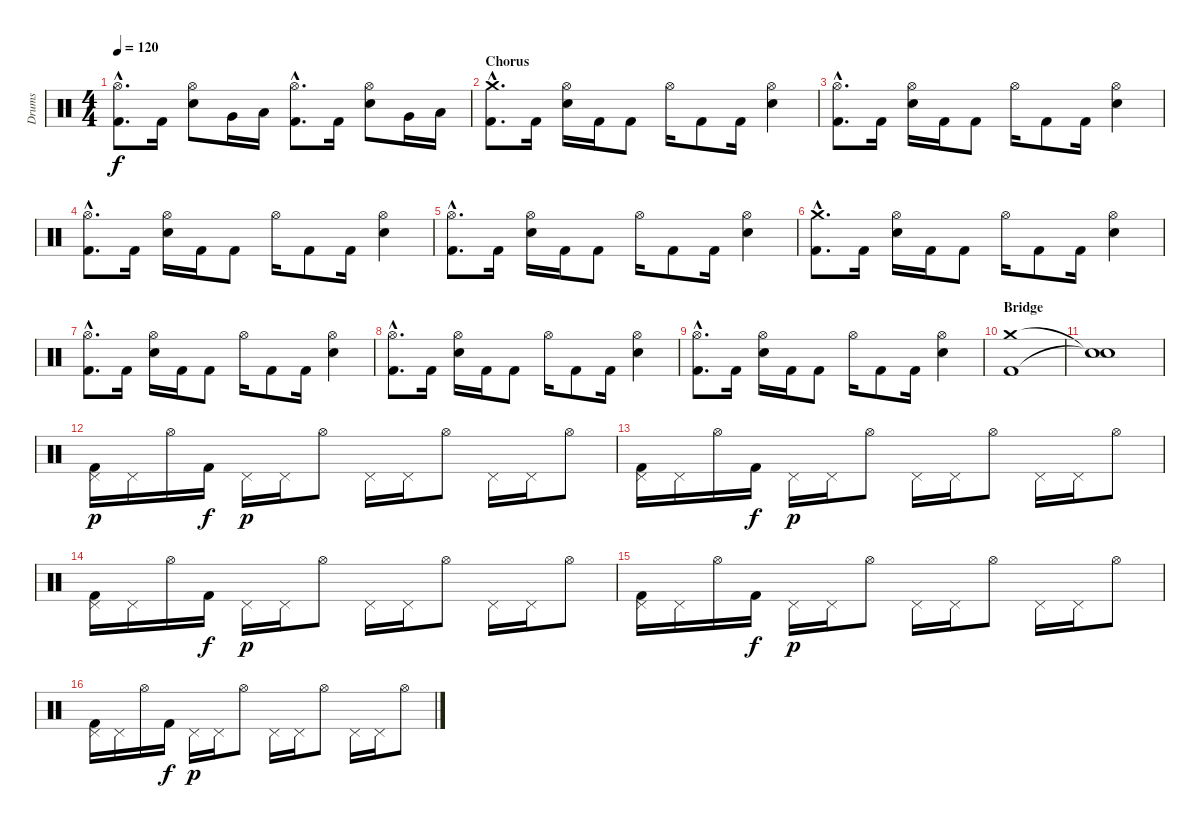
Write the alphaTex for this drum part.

\track ("Drums" "Drums") {instrument percussion}
\staff {score}
\articulation defaults
\ts (4 4)
\tempo 120
\clef neutral
\ks c
("Hi-Hat (open)"{hac} "Kick (hit) 2"{hac}).8{d dy f} "Kick (hit) 2".16 ("Hi-Hat (open)" "Electric Snare (hit)").8 "Very Low Tom (hit)".16 "Low Tom (hit)".16 ("Hi-Hat (open)"{hac} "Kick (hit) 2"{hac}).8{d} "Kick (hit) 2".16 ("Hi-Hat (open)" "Electric Snare (hit)").8 "Very Low Tom (hit)".16 "Low Tom (hit)".16 |
\section ("" "Chorus")
("Crash medium (hit)"{hac} "Kick (hit) 2"{hac}).8{d} "Kick (hit) 2".16 ("Hi-Hat (open)" "Electric Snare (hit)").16 "Kick (hit) 2".16 "Kick (hit) 2".8 "Hi-Hat (open)".16 "Kick (hit) 2".8 "Kick (hit) 2".16 ("Hi-Hat (open)" "Electric Snare (hit)").4 |
("Hi-Hat (open)"{hac} "Kick (hit) 2"{hac}).8{d} "Kick (hit) 2".16 ("Hi-Hat (open)" "Electric Snare (hit)").16 "Kick (hit) 2".16 "Kick (hit) 2".8 "Hi-Hat (open)".16 "Kick (hit) 2".8 "Kick (hit) 2".16 ("Hi-Hat (open)" "Electric Snare (hit)").4 |
("Hi-Hat (open)"{hac} "Kick (hit) 2"{hac}).8{d} "Kick (hit) 2".16 ("Hi-Hat (open)" "Electric Snare (hit)").16 "Kick (hit) 2".16 "Kick (hit) 2".8 "Hi-Hat (open)".16 "Kick (hit) 2".8 "Kick (hit) 2".16 ("Hi-Hat (open)" "Electric Snare (hit)").4 |
("Hi-Hat (open)"{hac} "Kick (hit) 2"{hac}).8{d} "Kick (hit) 2".16 ("Hi-Hat (open)" "Electric Snare (hit)").16 "Kick (hit) 2".16 "Kick (hit) 2".8 "Hi-Hat (open)".16 "Kick (hit) 2".8 "Kick (hit) 2".16 ("Hi-Hat (open)" "Electric Snare (hit)").4 |
("Crash medium (hit)"{hac} "Kick (hit) 2"{hac}).8{d} "Kick (hit) 2".16 ("Hi-Hat (open)" "Electric Snare (hit)").16 "Kick (hit) 2".16 "Kick (hit) 2".8 "Hi-Hat (open)".16 "Kick (hit) 2".8 "Kick (hit) 2".16 ("Hi-Hat (open)" "Electric Snare (hit)").4 |
("Hi-Hat (open)"{hac} "Kick (hit) 2"{hac}).8{d} "Kick (hit) 2".16 ("Hi-Hat (open)" "Electric Snare (hit)").16 "Kick (hit) 2".16 "Kick (hit) 2".8 "Hi-Hat (open)".16 "Kick (hit) 2".8 "Kick (hit) 2".16 ("Hi-Hat (open)" "Electric Snare (hit)").4 |
("Hi-Hat (open)"{hac} "Kick (hit) 2"{hac}).8{d} "Kick (hit) 2".16 ("Hi-Hat (open)" "Electric Snare (hit)").16 "Kick (hit) 2".16 "Kick (hit) 2".8 "Hi-Hat (open)".16 "Kick (hit) 2".8 "Kick (hit) 2".16 ("Hi-Hat (open)" "Electric Snare (hit)").4 |
("Hi-Hat (open)"{hac} "Kick (hit) 2"{hac}).8{d} "Kick (hit) 2".16 ("Hi-Hat (open)" "Electric Snare (hit)").16 "Kick (hit) 2".16 "Kick (hit) 2".8 "Hi-Hat (open)".16 "Kick (hit) 2".8 "Kick (hit) 2".16 ("Hi-Hat (open)" "Electric Snare (hit)").4 |
\section ("" "Bridge")
("Crash medium (hit)" "Kick (hit) 2").1 |
("Snare (hit)"{t} "Snare (hit)"{t}).1 |
("Pedal Hi-Hat (hit)" "Kick (hit) 2").16{dy p} "Pedal Hi-Hat (hit)".16 "Hi-Hat (open)".16 "Kick (hit) 2".16{dy f} "Pedal Hi-Hat (hit)".16{dy p} "Pedal Hi-Hat (hit)".16 "Hi-Hat (open)".8 "Pedal Hi-Hat (hit)".16 "Pedal Hi-Hat (hit)".16 "Hi-Hat (open)".8 "Pedal Hi-Hat (hit)".16 "Pedal Hi-Hat (hit)".16 "Hi-Hat (open)".8 |
("Pedal Hi-Hat (hit)" "Kick (hit) 2").16 "Pedal Hi-Hat (hit)".16 "Hi-Hat (open)".16 "Kick (hit) 2".16{dy f} "Pedal Hi-Hat (hit)".16{dy p} "Pedal Hi-Hat (hit)".16 "Hi-Hat (open)".8 "Pedal Hi-Hat (hit)".16 "Pedal Hi-Hat (hit)".16 "Hi-Hat (open)".8 "Pedal Hi-Hat (hit)".16 "Pedal Hi-Hat (hit)".16 "Hi-Hat (open)".8 |
("Pedal Hi-Hat (hit)" "Kick (hit) 2").16 "Pedal Hi-Hat (hit)".16 "Hi-Hat (open)".16 "Kick (hit) 2".16{dy f} "Pedal Hi-Hat (hit)".16{dy p} "Pedal Hi-Hat (hit)".16 "Hi-Hat (open)".8 "Pedal Hi-Hat (hit)".16 "Pedal Hi-Hat (hit)".16 "Hi-Hat (open)".8 "Pedal Hi-Hat (hit)".16 "Pedal Hi-Hat (hit)".16 "Hi-Hat (open)".8 |
("Pedal Hi-Hat (hit)" "Kick (hit) 2").16 "Pedal Hi-Hat (hit)".16 "Hi-Hat (open)".16 "Kick (hit) 2".16{dy f} "Pedal Hi-Hat (hit)".16{dy p} "Pedal Hi-Hat (hit)".16 "Hi-Hat (open)".8 "Pedal Hi-Hat (hit)".16 "Pedal Hi-Hat (hit)".16 "Hi-Hat (open)".8 "Pedal Hi-Hat (hit)".16 "Pedal Hi-Hat (hit)".16 "Hi-Hat (open)".8 |
("Pedal Hi-Hat (hit)" "Kick (hit) 2").16 "Pedal Hi-Hat (hit)".16 "Hi-Hat (open)".16 "Kick (hit) 2".16{dy f} "Pedal Hi-Hat (hit)".16{dy p} "Pedal Hi-Hat (hit)".16 "Hi-Hat (open)".8 "Pedal Hi-Hat (hit)".16 "Pedal Hi-Hat (hit)".16 "Hi-Hat (open)".8 "Pedal Hi-Hat (hit)".16 "Pedal Hi-Hat (hit)".16 "Hi-Hat (open)".8
